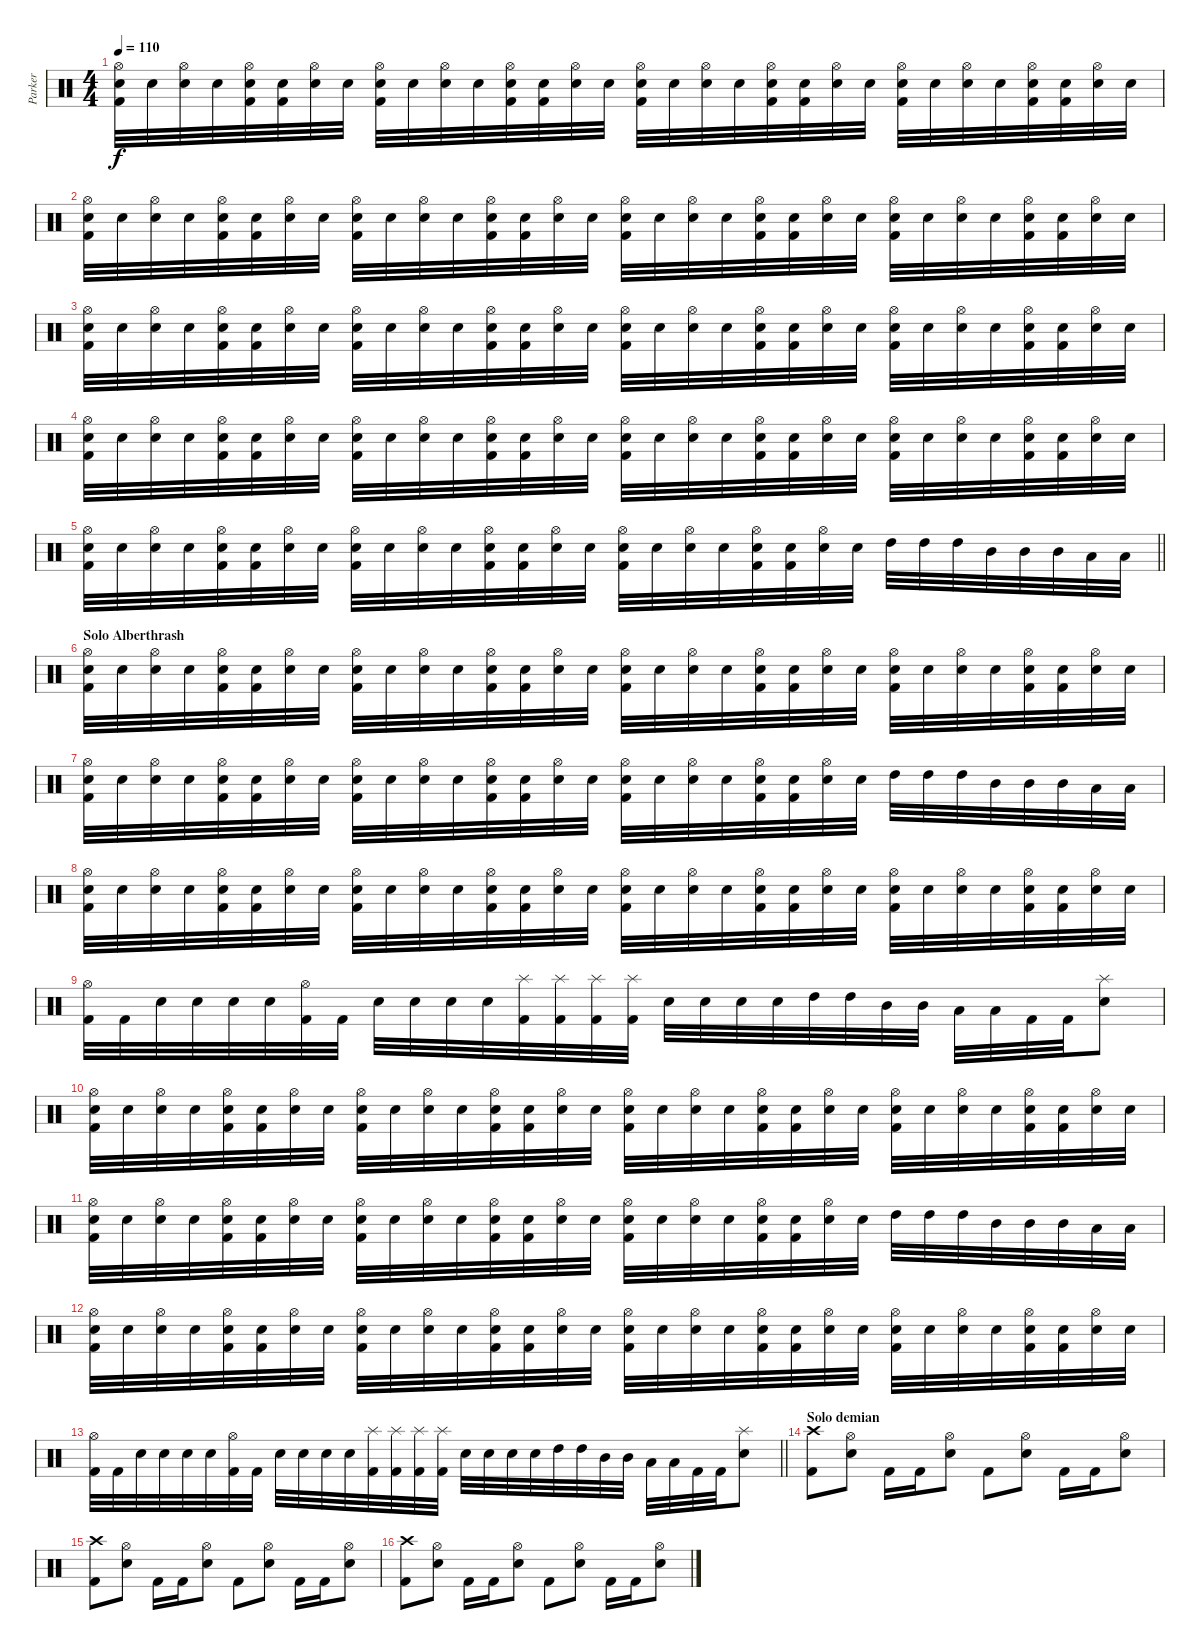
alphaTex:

\track ("Parker" "Parker") {instrument percussion}
\staff {score}
\articulation defaults
\ts (4 4)
\tempo 110
\clef neutral
\ks c
("Hi-Hat (open)" "Kick (hit) 2" "Snare (hit)").32{dy f} "Snare (hit)".32 ("Hi-Hat (open)" "Electric Snare (hit)").32 "Snare (hit)".32 ("Hi-Hat (open)" "Kick (hit) 2" "Snare (hit)").32 ("Kick (hit) 2" "Snare (hit)").32 ("Hi-Hat (open)" "Electric Snare (hit)").32 "Snare (hit)".32 ("Hi-Hat (open)" "Kick (hit) 2" "Snare (hit)").32 "Snare (hit)".32 ("Hi-Hat (open)" "Electric Snare (hit)").32 "Snare (hit)".32 ("Hi-Hat (open)" "Kick (hit) 2" "Snare (hit)").32 ("Kick (hit) 2" "Snare (hit)").32 ("Hi-Hat (open)" "Electric Snare (hit)").32 "Snare (hit)".32 ("Hi-Hat (open)" "Kick (hit) 2" "Snare (hit)").32 "Snare (hit)".32 ("Hi-Hat (open)" "Electric Snare (hit)").32 "Snare (hit)".32 ("Hi-Hat (open)" "Kick (hit) 2" "Snare (hit)").32 ("Kick (hit) 2" "Snare (hit)").32 ("Hi-Hat (open)" "Electric Snare (hit)").32 "Snare (hit)".32 ("Hi-Hat (open)" "Kick (hit) 2" "Snare (hit)").32 "Snare (hit)".32 ("Hi-Hat (open)" "Electric Snare (hit)").32 "Snare (hit)".32 ("Hi-Hat (open)" "Kick (hit) 2" "Snare (hit)").32 ("Kick (hit) 2" "Snare (hit)").32 ("Hi-Hat (open)" "Electric Snare (hit)").32 "Snare (hit)".32 |
("Hi-Hat (open)" "Kick (hit) 2" "Snare (hit)").32 "Snare (hit)".32 ("Hi-Hat (open)" "Electric Snare (hit)").32 "Snare (hit)".32 ("Hi-Hat (open)" "Kick (hit) 2" "Snare (hit)").32 ("Kick (hit) 2" "Snare (hit)").32 ("Hi-Hat (open)" "Electric Snare (hit)").32 "Snare (hit)".32 ("Hi-Hat (open)" "Kick (hit) 2" "Snare (hit)").32 "Snare (hit)".32 ("Hi-Hat (open)" "Electric Snare (hit)").32 "Snare (hit)".32 ("Hi-Hat (open)" "Kick (hit) 2" "Snare (hit)").32 ("Kick (hit) 2" "Snare (hit)").32 ("Hi-Hat (open)" "Electric Snare (hit)").32 "Snare (hit)".32 ("Hi-Hat (open)" "Kick (hit) 2" "Snare (hit)").32 "Snare (hit)".32 ("Hi-Hat (open)" "Electric Snare (hit)").32 "Snare (hit)".32 ("Hi-Hat (open)" "Kick (hit) 2" "Snare (hit)").32 ("Kick (hit) 2" "Snare (hit)").32 ("Hi-Hat (open)" "Electric Snare (hit)").32 "Snare (hit)".32 ("Hi-Hat (open)" "Kick (hit) 2" "Snare (hit)").32 "Snare (hit)".32 ("Hi-Hat (open)" "Electric Snare (hit)").32 "Snare (hit)".32 ("Hi-Hat (open)" "Kick (hit) 2" "Snare (hit)").32 ("Kick (hit) 2" "Snare (hit)").32 ("Hi-Hat (open)" "Electric Snare (hit)").32 "Snare (hit)".32 |
("Hi-Hat (open)" "Kick (hit) 2" "Snare (hit)").32 "Snare (hit)".32 ("Hi-Hat (open)" "Electric Snare (hit)").32 "Snare (hit)".32 ("Hi-Hat (open)" "Kick (hit) 2" "Snare (hit)").32 ("Kick (hit) 2" "Snare (hit)").32 ("Hi-Hat (open)" "Electric Snare (hit)").32 "Snare (hit)".32 ("Hi-Hat (open)" "Kick (hit) 2" "Snare (hit)").32 "Snare (hit)".32 ("Hi-Hat (open)" "Electric Snare (hit)").32 "Snare (hit)".32 ("Hi-Hat (open)" "Kick (hit) 2" "Snare (hit)").32 ("Kick (hit) 2" "Snare (hit)").32 ("Hi-Hat (open)" "Electric Snare (hit)").32 "Snare (hit)".32 ("Hi-Hat (open)" "Kick (hit) 2" "Snare (hit)").32 "Snare (hit)".32 ("Hi-Hat (open)" "Electric Snare (hit)").32 "Snare (hit)".32 ("Hi-Hat (open)" "Kick (hit) 2" "Snare (hit)").32 ("Kick (hit) 2" "Snare (hit)").32 ("Hi-Hat (open)" "Electric Snare (hit)").32 "Snare (hit)".32 ("Hi-Hat (open)" "Kick (hit) 2" "Snare (hit)").32 "Snare (hit)".32 ("Hi-Hat (open)" "Electric Snare (hit)").32 "Snare (hit)".32 ("Hi-Hat (open)" "Kick (hit) 2" "Snare (hit)").32 ("Kick (hit) 2" "Snare (hit)").32 ("Hi-Hat (open)" "Electric Snare (hit)").32 "Snare (hit)".32 |
("Hi-Hat (open)" "Kick (hit) 2" "Snare (hit)").32 "Snare (hit)".32 ("Hi-Hat (open)" "Electric Snare (hit)").32 "Snare (hit)".32 ("Hi-Hat (open)" "Kick (hit) 2" "Snare (hit)").32 ("Kick (hit) 2" "Snare (hit)").32 ("Hi-Hat (open)" "Electric Snare (hit)").32 "Snare (hit)".32 ("Hi-Hat (open)" "Kick (hit) 2" "Snare (hit)").32 "Snare (hit)".32 ("Hi-Hat (open)" "Electric Snare (hit)").32 "Snare (hit)".32 ("Hi-Hat (open)" "Kick (hit) 2" "Snare (hit)").32 ("Kick (hit) 2" "Snare (hit)").32 ("Hi-Hat (open)" "Electric Snare (hit)").32 "Snare (hit)".32 ("Hi-Hat (open)" "Kick (hit) 2" "Snare (hit)").32 "Snare (hit)".32 ("Hi-Hat (open)" "Electric Snare (hit)").32 "Snare (hit)".32 ("Hi-Hat (open)" "Kick (hit) 2" "Snare (hit)").32 ("Kick (hit) 2" "Snare (hit)").32 ("Hi-Hat (open)" "Electric Snare (hit)").32 "Snare (hit)".32 ("Hi-Hat (open)" "Kick (hit) 2" "Snare (hit)").32 "Snare (hit)".32 ("Hi-Hat (open)" "Electric Snare (hit)").32 "Snare (hit)".32 ("Hi-Hat (open)" "Kick (hit) 2" "Snare (hit)").32 ("Kick (hit) 2" "Snare (hit)").32 ("Hi-Hat (open)" "Electric Snare (hit)").32 "Snare (hit)".32 |
\barLineRight lightlight
("Hi-Hat (open)" "Kick (hit) 2" "Snare (hit)").32 "Snare (hit)".32 ("Hi-Hat (open)" "Electric Snare (hit)").32 "Snare (hit)".32 ("Hi-Hat (open)" "Kick (hit) 2" "Snare (hit)").32 ("Kick (hit) 2" "Snare (hit)").32 ("Hi-Hat (open)" "Electric Snare (hit)").32 "Snare (hit)".32 ("Hi-Hat (open)" "Kick (hit) 2" "Snare (hit)").32 "Snare (hit)".32 ("Hi-Hat (open)" "Electric Snare (hit)").32 "Snare (hit)".32 ("Hi-Hat (open)" "Kick (hit) 2" "Snare (hit)").32 ("Kick (hit) 2" "Snare (hit)").32 ("Hi-Hat (open)" "Electric Snare (hit)").32 "Snare (hit)".32 ("Hi-Hat (open)" "Kick (hit) 2" "Snare (hit)").32 "Snare (hit)".32 ("Hi-Hat (open)" "Electric Snare (hit)").32 "Snare (hit)".32 ("Hi-Hat (open)" "Kick (hit) 2" "Snare (hit)").32 ("Kick (hit) 2" "Snare (hit)").32 ("Hi-Hat (open)" "Electric Snare (hit)").32 "Snare (hit)".32 "High Tom (hit)".32 "High Tom (hit)".32 "High Tom (hit)".32 "Mid Tom (hit)".32 "Mid Tom (hit)".32 "Mid Tom (hit)".32 "Low Tom (hit)".32 "Low Tom (hit)".32 |
\section ("" "Solo Alberthrash")
("Hi-Hat (open)" "Kick (hit) 2" "Snare (hit)").32 "Snare (hit)".32 ("Hi-Hat (open)" "Electric Snare (hit)").32 "Snare (hit)".32 ("Hi-Hat (open)" "Kick (hit) 2" "Snare (hit)").32 ("Kick (hit) 2" "Snare (hit)").32 ("Hi-Hat (open)" "Electric Snare (hit)").32 "Snare (hit)".32 ("Hi-Hat (open)" "Kick (hit) 2" "Snare (hit)").32 "Snare (hit)".32 ("Hi-Hat (open)" "Electric Snare (hit)").32 "Snare (hit)".32 ("Hi-Hat (open)" "Kick (hit) 2" "Snare (hit)").32 ("Kick (hit) 2" "Snare (hit)").32 ("Hi-Hat (open)" "Electric Snare (hit)").32 "Snare (hit)".32 ("Hi-Hat (open)" "Kick (hit) 2" "Snare (hit)").32 "Snare (hit)".32 ("Hi-Hat (open)" "Electric Snare (hit)").32 "Snare (hit)".32 ("Hi-Hat (open)" "Kick (hit) 2" "Snare (hit)").32 ("Kick (hit) 2" "Snare (hit)").32 ("Hi-Hat (open)" "Electric Snare (hit)").32 "Snare (hit)".32 ("Hi-Hat (open)" "Kick (hit) 2" "Snare (hit)").32 "Snare (hit)".32 ("Hi-Hat (open)" "Electric Snare (hit)").32 "Snare (hit)".32 ("Hi-Hat (open)" "Kick (hit) 2" "Snare (hit)").32 ("Kick (hit) 2" "Snare (hit)").32 ("Hi-Hat (open)" "Electric Snare (hit)").32 "Snare (hit)".32 |
("Hi-Hat (open)" "Kick (hit) 2" "Snare (hit)").32 "Snare (hit)".32 ("Hi-Hat (open)" "Electric Snare (hit)").32 "Snare (hit)".32 ("Hi-Hat (open)" "Kick (hit) 2" "Snare (hit)").32 ("Kick (hit) 2" "Snare (hit)").32 ("Hi-Hat (open)" "Electric Snare (hit)").32 "Snare (hit)".32 ("Hi-Hat (open)" "Kick (hit) 2" "Snare (hit)").32 "Snare (hit)".32 ("Hi-Hat (open)" "Electric Snare (hit)").32 "Snare (hit)".32 ("Hi-Hat (open)" "Kick (hit) 2" "Snare (hit)").32 ("Kick (hit) 2" "Snare (hit)").32 ("Hi-Hat (open)" "Electric Snare (hit)").32 "Snare (hit)".32 ("Hi-Hat (open)" "Kick (hit) 2" "Snare (hit)").32 "Snare (hit)".32 ("Hi-Hat (open)" "Electric Snare (hit)").32 "Snare (hit)".32 ("Hi-Hat (open)" "Kick (hit) 2" "Snare (hit)").32 ("Kick (hit) 2" "Snare (hit)").32 ("Hi-Hat (open)" "Electric Snare (hit)").32 "Snare (hit)".32 "High Tom (hit)".32 "High Tom (hit)".32 "High Tom (hit)".32 "Mid Tom (hit)".32 "Mid Tom (hit)".32 "Mid Tom (hit)".32 "Low Tom (hit)".32 "Low Tom (hit)".32 |
("Hi-Hat (open)" "Kick (hit) 2" "Snare (hit)").32 "Snare (hit)".32 ("Hi-Hat (open)" "Electric Snare (hit)").32 "Snare (hit)".32 ("Hi-Hat (open)" "Kick (hit) 2" "Snare (hit)").32 ("Kick (hit) 2" "Snare (hit)").32 ("Hi-Hat (open)" "Electric Snare (hit)").32 "Snare (hit)".32 ("Hi-Hat (open)" "Kick (hit) 2" "Snare (hit)").32 "Snare (hit)".32 ("Hi-Hat (open)" "Electric Snare (hit)").32 "Snare (hit)".32 ("Hi-Hat (open)" "Kick (hit) 2" "Snare (hit)").32 ("Kick (hit) 2" "Snare (hit)").32 ("Hi-Hat (open)" "Electric Snare (hit)").32 "Snare (hit)".32 ("Hi-Hat (open)" "Kick (hit) 2" "Snare (hit)").32 "Snare (hit)".32 ("Hi-Hat (open)" "Electric Snare (hit)").32 "Snare (hit)".32 ("Hi-Hat (open)" "Kick (hit) 2" "Snare (hit)").32 ("Kick (hit) 2" "Snare (hit)").32 ("Hi-Hat (open)" "Electric Snare (hit)").32 "Snare (hit)".32 ("Hi-Hat (open)" "Kick (hit) 2" "Snare (hit)").32 "Snare (hit)".32 ("Hi-Hat (open)" "Electric Snare (hit)").32 "Snare (hit)".32 ("Hi-Hat (open)" "Kick (hit) 2" "Snare (hit)").32 ("Kick (hit) 2" "Snare (hit)").32 ("Hi-Hat (open)" "Electric Snare (hit)").32 "Snare (hit)".32 |
("Hi-Hat (open)" "Kick (hit) 2").32 "Kick (hit) 2".32 "Electric Snare (hit)".32 "Electric Snare (hit)".32 "Electric Snare (hit)".32 "Electric Snare (hit)".32 ("Hi-Hat (open)" "Kick (hit) 2").32 "Kick (hit) 2".32 "Electric Snare (hit)".32 "Electric Snare (hit)".32 "Electric Snare (hit)".32 "Electric Snare (hit)".32 ("Splash (hit)" "Kick (hit) 2").32 ("Splash (hit)" "Kick (hit) 2").32 ("Splash (hit)" "Kick (hit) 2").32 ("Splash (hit)" "Kick (hit) 2").32 "Electric Snare (hit)".32 "Electric Snare (hit)".32 "Electric Snare (hit)".32 "Electric Snare (hit)".32 "High Tom (hit)".32 "High Tom (hit)".32 "Mid Tom (hit)".32 "Mid Tom (hit)".32 "Low Tom (hit)".32 "Low Tom (hit)".32 "Kick (hit) 2".32 "Kick (hit) 2".32 ("Splash (hit)" "Electric Snare (hit)").8 |
("Hi-Hat (open)" "Kick (hit) 2" "Snare (hit)").32 "Snare (hit)".32 ("Hi-Hat (open)" "Electric Snare (hit)").32 "Snare (hit)".32 ("Hi-Hat (open)" "Kick (hit) 2" "Snare (hit)").32 ("Kick (hit) 2" "Snare (hit)").32 ("Hi-Hat (open)" "Electric Snare (hit)").32 "Snare (hit)".32 ("Hi-Hat (open)" "Kick (hit) 2" "Snare (hit)").32 "Snare (hit)".32 ("Hi-Hat (open)" "Electric Snare (hit)").32 "Snare (hit)".32 ("Hi-Hat (open)" "Kick (hit) 2" "Snare (hit)").32 ("Kick (hit) 2" "Snare (hit)").32 ("Hi-Hat (open)" "Electric Snare (hit)").32 "Snare (hit)".32 ("Hi-Hat (open)" "Kick (hit) 2" "Snare (hit)").32 "Snare (hit)".32 ("Hi-Hat (open)" "Electric Snare (hit)").32 "Snare (hit)".32 ("Hi-Hat (open)" "Kick (hit) 2" "Snare (hit)").32 ("Kick (hit) 2" "Snare (hit)").32 ("Hi-Hat (open)" "Electric Snare (hit)").32 "Snare (hit)".32 ("Hi-Hat (open)" "Kick (hit) 2" "Snare (hit)").32 "Snare (hit)".32 ("Hi-Hat (open)" "Electric Snare (hit)").32 "Snare (hit)".32 ("Hi-Hat (open)" "Kick (hit) 2" "Snare (hit)").32 ("Kick (hit) 2" "Snare (hit)").32 ("Hi-Hat (open)" "Electric Snare (hit)").32 "Snare (hit)".32 |
("Hi-Hat (open)" "Kick (hit) 2" "Snare (hit)").32 "Snare (hit)".32 ("Hi-Hat (open)" "Electric Snare (hit)").32 "Snare (hit)".32 ("Hi-Hat (open)" "Kick (hit) 2" "Snare (hit)").32 ("Kick (hit) 2" "Snare (hit)").32 ("Hi-Hat (open)" "Electric Snare (hit)").32 "Snare (hit)".32 ("Hi-Hat (open)" "Kick (hit) 2" "Snare (hit)").32 "Snare (hit)".32 ("Hi-Hat (open)" "Electric Snare (hit)").32 "Snare (hit)".32 ("Hi-Hat (open)" "Kick (hit) 2" "Snare (hit)").32 ("Kick (hit) 2" "Snare (hit)").32 ("Hi-Hat (open)" "Electric Snare (hit)").32 "Snare (hit)".32 ("Hi-Hat (open)" "Kick (hit) 2" "Snare (hit)").32 "Snare (hit)".32 ("Hi-Hat (open)" "Electric Snare (hit)").32 "Snare (hit)".32 ("Hi-Hat (open)" "Kick (hit) 2" "Snare (hit)").32 ("Kick (hit) 2" "Snare (hit)").32 ("Hi-Hat (open)" "Electric Snare (hit)").32 "Snare (hit)".32 "High Tom (hit)".32 "High Tom (hit)".32 "High Tom (hit)".32 "Mid Tom (hit)".32 "Mid Tom (hit)".32 "Mid Tom (hit)".32 "Low Tom (hit)".32 "Low Tom (hit)".32 |
("Hi-Hat (open)" "Kick (hit) 2" "Snare (hit)").32 "Snare (hit)".32 ("Hi-Hat (open)" "Electric Snare (hit)").32 "Snare (hit)".32 ("Hi-Hat (open)" "Kick (hit) 2" "Snare (hit)").32 ("Kick (hit) 2" "Snare (hit)").32 ("Hi-Hat (open)" "Electric Snare (hit)").32 "Snare (hit)".32 ("Hi-Hat (open)" "Kick (hit) 2" "Snare (hit)").32 "Snare (hit)".32 ("Hi-Hat (open)" "Electric Snare (hit)").32 "Snare (hit)".32 ("Hi-Hat (open)" "Kick (hit) 2" "Snare (hit)").32 ("Kick (hit) 2" "Snare (hit)").32 ("Hi-Hat (open)" "Electric Snare (hit)").32 "Snare (hit)".32 ("Hi-Hat (open)" "Kick (hit) 2" "Snare (hit)").32 "Snare (hit)".32 ("Hi-Hat (open)" "Electric Snare (hit)").32 "Snare (hit)".32 ("Hi-Hat (open)" "Kick (hit) 2" "Snare (hit)").32 ("Kick (hit) 2" "Snare (hit)").32 ("Hi-Hat (open)" "Electric Snare (hit)").32 "Snare (hit)".32 ("Hi-Hat (open)" "Kick (hit) 2" "Snare (hit)").32 "Snare (hit)".32 ("Hi-Hat (open)" "Electric Snare (hit)").32 "Snare (hit)".32 ("Hi-Hat (open)" "Kick (hit) 2" "Snare (hit)").32 ("Kick (hit) 2" "Snare (hit)").32 ("Hi-Hat (open)" "Electric Snare (hit)").32 "Snare (hit)".32 |
\barLineRight lightlight
("Hi-Hat (open)" "Kick (hit) 2").32 "Kick (hit) 2".32 "Electric Snare (hit)".32 "Electric Snare (hit)".32 "Electric Snare (hit)".32 "Electric Snare (hit)".32 ("Hi-Hat (open)" "Kick (hit) 2").32 "Kick (hit) 2".32 "Electric Snare (hit)".32 "Electric Snare (hit)".32 "Electric Snare (hit)".32 "Electric Snare (hit)".32 ("Splash (hit)" "Kick (hit) 2").32 ("Splash (hit)" "Kick (hit) 2").32 ("Splash (hit)" "Kick (hit) 2").32 ("Splash (hit)" "Kick (hit) 2").32 "Electric Snare (hit)".32 "Electric Snare (hit)".32 "Electric Snare (hit)".32 "Electric Snare (hit)".32 "High Tom (hit)".32 "High Tom (hit)".32 "Mid Tom (hit)".32 "Mid Tom (hit)".32 "Low Tom (hit)".32 "Low Tom (hit)".32 "Kick (hit) 2".32 "Kick (hit) 2".32 ("Splash (hit)" "Electric Snare (hit)").8 |
\section ("" "Solo demian")
("Crash high (hit)" "Kick (hit) 2").8 ("Hi-Hat (open)" "Electric Snare (hit)").8 "Kick (hit) 2".16 "Kick (hit) 2".16 ("Hi-Hat (open)" "Electric Snare (hit)").8 "Kick (hit) 2".8 ("Hi-Hat (open)" "Electric Snare (hit)").8 "Kick (hit) 2".16 "Kick (hit) 2".16 ("Hi-Hat (open)" "Electric Snare (hit)").8 |
("Crash high (hit)" "Kick (hit) 2").8 ("Hi-Hat (open)" "Electric Snare (hit)").8 "Kick (hit) 2".16 "Kick (hit) 2".16 ("Hi-Hat (open)" "Electric Snare (hit)").8 "Kick (hit) 2".8 ("Hi-Hat (open)" "Electric Snare (hit)").8 "Kick (hit) 2".16 "Kick (hit) 2".16 ("Hi-Hat (open)" "Electric Snare (hit)").8 |
("Crash high (hit)" "Kick (hit) 2").8 ("Hi-Hat (open)" "Electric Snare (hit)").8 "Kick (hit) 2".16 "Kick (hit) 2".16 ("Hi-Hat (open)" "Electric Snare (hit)").8 "Kick (hit) 2".8 ("Hi-Hat (open)" "Electric Snare (hit)").8 "Kick (hit) 2".16 "Kick (hit) 2".16 ("Hi-Hat (open)" "Electric Snare (hit)").8
